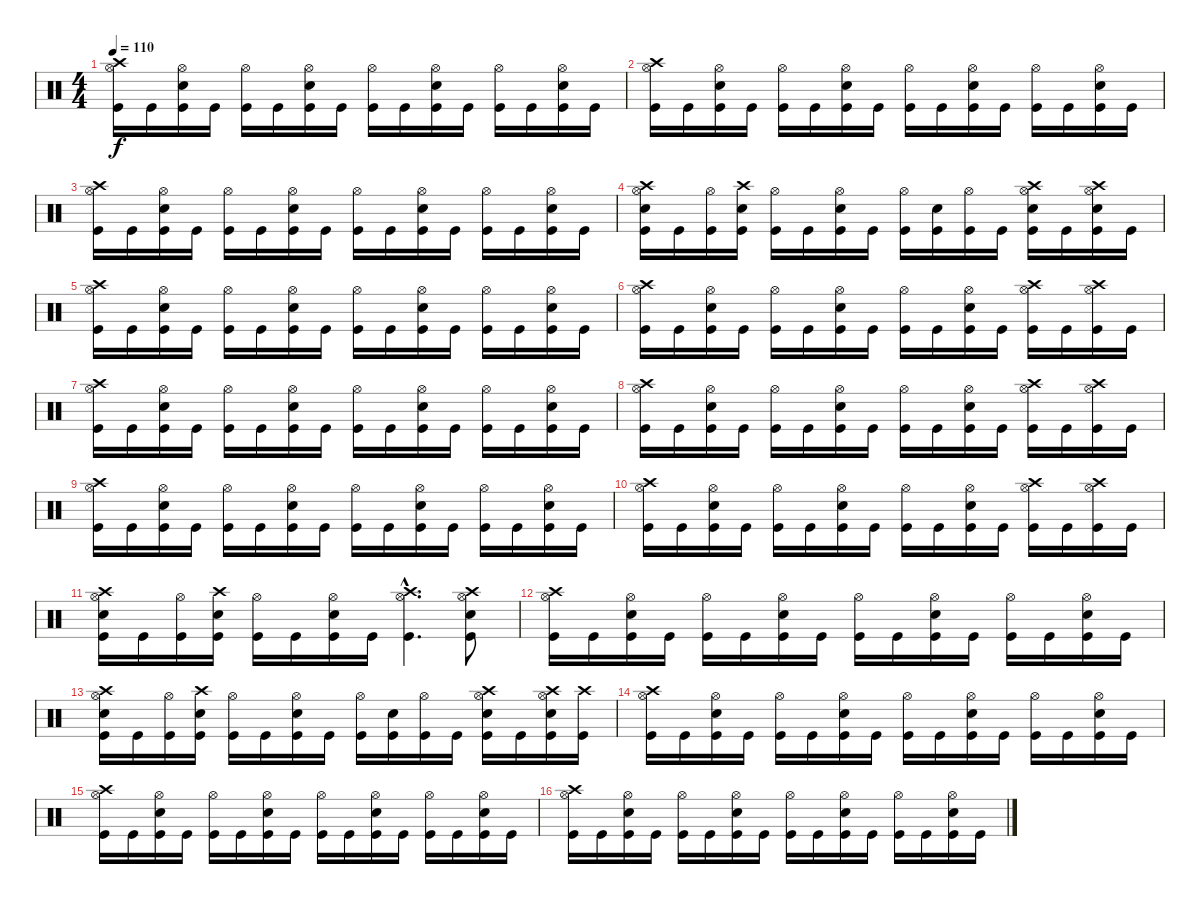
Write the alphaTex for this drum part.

\track "" {instrument percussion}
\staff {score}
\articulation defaults
\ts (4 4)
\tempo 110
\clef neutral
\ks c
("Crash high (hit)" "Kick (hit)" "Hi-Hat (open)").16{dy f} "Kick (hit)".16 ("Kick (hit)" "Electric Snare (hit)" "Hi-Hat (open)").16 "Kick (hit)".16 ("Kick (hit)" "Hi-Hat (open)").16 "Kick (hit)".16 ("Kick (hit)" "Electric Snare (hit)" "Hi-Hat (open)").16 "Kick (hit)".16 ("Hi-Hat (open)" "Kick (hit)").16 "Kick (hit)".16 ("Kick (hit)" "Hi-Hat (open)" "Electric Snare (hit)").16 "Kick (hit)".16 ("Hi-Hat (open)" "Kick (hit)").16 "Kick (hit)".16 ("Kick (hit)" "Hi-Hat (open)" "Electric Snare (hit)").16 "Kick (hit)".16 |
("Crash high (hit)" "Kick (hit)" "Hi-Hat (open)").16 "Kick (hit)".16 ("Kick (hit)" "Electric Snare (hit)" "Hi-Hat (open)").16 "Kick (hit)".16 ("Kick (hit)" "Hi-Hat (open)").16 "Kick (hit)".16 ("Kick (hit)" "Electric Snare (hit)" "Hi-Hat (open)").16 "Kick (hit)".16 ("Hi-Hat (open)" "Kick (hit)").16 "Kick (hit)".16 ("Kick (hit)" "Hi-Hat (open)" "Electric Snare (hit)").16 "Kick (hit)".16 ("Hi-Hat (open)" "Kick (hit)").16 "Kick (hit)".16 ("Kick (hit)" "Hi-Hat (open)" "Electric Snare (hit)").16 "Kick (hit)".16 |
("Crash high (hit)" "Kick (hit)" "Hi-Hat (open)").16 "Kick (hit)".16 ("Kick (hit)" "Electric Snare (hit)" "Hi-Hat (open)").16 "Kick (hit)".16 ("Kick (hit)" "Hi-Hat (open)").16 "Kick (hit)".16 ("Kick (hit)" "Electric Snare (hit)" "Hi-Hat (open)").16 "Kick (hit)".16 ("Hi-Hat (open)" "Kick (hit)").16 "Kick (hit)".16 ("Kick (hit)" "Hi-Hat (open)" "Electric Snare (hit)").16 "Kick (hit)".16 ("Hi-Hat (open)" "Kick (hit)").16 "Kick (hit)".16 ("Kick (hit)" "Hi-Hat (open)" "Electric Snare (hit)").16 "Kick (hit)".16 |
("Crash high (hit)" "Electric Snare (hit)" "Kick (hit)" "Hi-Hat (open)").16 "Kick (hit)".16 ("Kick (hit)" "Hi-Hat (open)").16 ("Crash high (hit)" "Electric Snare (hit)" "Kick (hit)").16 ("Kick (hit)" "Hi-Hat (open)").16 "Kick (hit)".16 ("Electric Snare (hit)" "Kick (hit)" "Hi-Hat (open)").16 "Kick (hit)".16 ("Hi-Hat (open)" "Kick (hit)").16 ("Electric Snare (hit)" "Kick (hit)").16 ("Kick (hit)" "Hi-Hat (open)").16 "Kick (hit)".16 ("Crash high (hit)" "Electric Snare (hit)" "Hi-Hat (open)" "Kick (hit)").16 "Kick (hit)".16 ("Crash high (hit)" "Electric Snare (hit)" "Kick (hit)" "Hi-Hat (open)").16 "Kick (hit)".16 |
("Crash high (hit)" "Kick (hit)" "Hi-Hat (open)").16 "Kick (hit)".16 ("Kick (hit)" "Electric Snare (hit)" "Hi-Hat (open)").16 "Kick (hit)".16 ("Kick (hit)" "Hi-Hat (open)").16 "Kick (hit)".16 ("Kick (hit)" "Electric Snare (hit)" "Hi-Hat (open)").16 "Kick (hit)".16 ("Hi-Hat (open)" "Kick (hit)").16 "Kick (hit)".16 ("Kick (hit)" "Hi-Hat (open)" "Electric Snare (hit)").16 "Kick (hit)".16 ("Hi-Hat (open)" "Kick (hit)").16 "Kick (hit)".16 ("Kick (hit)" "Hi-Hat (open)" "Electric Snare (hit)").16 "Kick (hit)".16 |
("Crash high (hit)" "Kick (hit)" "Hi-Hat (open)").16 "Kick (hit)".16 ("Kick (hit)" "Electric Snare (hit)" "Hi-Hat (open)").16 "Kick (hit)".16 ("Kick (hit)" "Hi-Hat (open)").16 "Kick (hit)".16 ("Kick (hit)" "Electric Snare (hit)" "Hi-Hat (open)").16 "Kick (hit)".16 ("Hi-Hat (open)" "Kick (hit)").16 "Kick (hit)".16 ("Kick (hit)" "Hi-Hat (open)" "Electric Snare (hit)").16 "Kick (hit)".16 ("Hi-Hat (open)" "Kick (hit)" "Crash high (hit)").16 "Kick (hit)".16 ("Kick (hit)" "Hi-Hat (open)" "Crash high (hit)").16 "Kick (hit)".16 |
("Crash high (hit)" "Kick (hit)" "Hi-Hat (open)").16 "Kick (hit)".16 ("Kick (hit)" "Electric Snare (hit)" "Hi-Hat (open)").16 "Kick (hit)".16 ("Kick (hit)" "Hi-Hat (open)").16 "Kick (hit)".16 ("Kick (hit)" "Electric Snare (hit)" "Hi-Hat (open)").16 "Kick (hit)".16 ("Hi-Hat (open)" "Kick (hit)").16 "Kick (hit)".16 ("Kick (hit)" "Hi-Hat (open)" "Electric Snare (hit)").16 "Kick (hit)".16 ("Hi-Hat (open)" "Kick (hit)").16 "Kick (hit)".16 ("Kick (hit)" "Hi-Hat (open)" "Electric Snare (hit)").16 "Kick (hit)".16 |
("Crash high (hit)" "Kick (hit)" "Hi-Hat (open)").16 "Kick (hit)".16 ("Kick (hit)" "Electric Snare (hit)" "Hi-Hat (open)").16 "Kick (hit)".16 ("Kick (hit)" "Hi-Hat (open)").16 "Kick (hit)".16 ("Kick (hit)" "Electric Snare (hit)" "Hi-Hat (open)").16 "Kick (hit)".16 ("Hi-Hat (open)" "Kick (hit)").16 "Kick (hit)".16 ("Kick (hit)" "Hi-Hat (open)" "Electric Snare (hit)").16 "Kick (hit)".16 ("Hi-Hat (open)" "Kick (hit)" "Crash high (hit)").16 "Kick (hit)".16 ("Kick (hit)" "Hi-Hat (open)" "Crash high (hit)").16 "Kick (hit)".16 |
("Crash high (hit)" "Kick (hit)" "Hi-Hat (open)").16 "Kick (hit)".16 ("Kick (hit)" "Electric Snare (hit)" "Hi-Hat (open)").16 "Kick (hit)".16 ("Kick (hit)" "Hi-Hat (open)").16 "Kick (hit)".16 ("Kick (hit)" "Electric Snare (hit)" "Hi-Hat (open)").16 "Kick (hit)".16 ("Hi-Hat (open)" "Kick (hit)").16 "Kick (hit)".16 ("Kick (hit)" "Hi-Hat (open)" "Electric Snare (hit)").16 "Kick (hit)".16 ("Hi-Hat (open)" "Kick (hit)").16 "Kick (hit)".16 ("Kick (hit)" "Hi-Hat (open)" "Electric Snare (hit)").16 "Kick (hit)".16 |
("Crash high (hit)" "Kick (hit)" "Hi-Hat (open)").16 "Kick (hit)".16 ("Kick (hit)" "Electric Snare (hit)" "Hi-Hat (open)").16 "Kick (hit)".16 ("Kick (hit)" "Hi-Hat (open)").16 "Kick (hit)".16 ("Kick (hit)" "Electric Snare (hit)" "Hi-Hat (open)").16 "Kick (hit)".16 ("Hi-Hat (open)" "Kick (hit)").16 "Kick (hit)".16 ("Kick (hit)" "Hi-Hat (open)" "Electric Snare (hit)").16 "Kick (hit)".16 ("Hi-Hat (open)" "Kick (hit)" "Crash high (hit)").16 "Kick (hit)".16 ("Kick (hit)" "Hi-Hat (open)" "Crash high (hit)").16 "Kick (hit)".16 |
("Crash high (hit)" "Electric Snare (hit)" "Kick (hit)" "Hi-Hat (open)").16 "Kick (hit)".16 ("Kick (hit)" "Hi-Hat (open)").16 ("Crash high (hit)" "Electric Snare (hit)" "Kick (hit)").16 ("Kick (hit)" "Hi-Hat (open)").16 "Kick (hit)".16 ("Electric Snare (hit)" "Kick (hit)" "Hi-Hat (open)").16 "Kick (hit)".16 ("Hi-Hat (open)" "Kick (hit)"{hac} "Crash high (hit)"{hac}).4{d} ("Crash high (hit)" "Electric Snare (hit)" "Kick (hit)" "Hi-Hat (open)").8 |
("Crash high (hit)" "Kick (hit)" "Hi-Hat (open)").16 "Kick (hit)".16 ("Kick (hit)" "Electric Snare (hit)" "Hi-Hat (open)").16 "Kick (hit)".16 ("Kick (hit)" "Hi-Hat (open)").16 "Kick (hit)".16 ("Kick (hit)" "Electric Snare (hit)" "Hi-Hat (open)").16 "Kick (hit)".16 ("Hi-Hat (open)" "Kick (hit)").16 "Kick (hit)".16 ("Kick (hit)" "Hi-Hat (open)" "Electric Snare (hit)").16 "Kick (hit)".16 ("Hi-Hat (open)" "Kick (hit)").16 "Kick (hit)".16 ("Kick (hit)" "Hi-Hat (open)" "Electric Snare (hit)").16 "Kick (hit)".16 |
("Crash high (hit)" "Electric Snare (hit)" "Kick (hit)" "Hi-Hat (open)").16 "Kick (hit)".16 ("Kick (hit)" "Hi-Hat (open)").16 ("Crash high (hit)" "Electric Snare (hit)" "Kick (hit)").16 ("Kick (hit)" "Hi-Hat (open)").16 "Kick (hit)".16 ("Electric Snare (hit)" "Kick (hit)" "Hi-Hat (open)").16 "Kick (hit)".16 ("Hi-Hat (open)" "Kick (hit)").16 ("Electric Snare (hit)" "Kick (hit)").16 ("Kick (hit)" "Hi-Hat (open)").16 "Kick (hit)".16 ("Crash high (hit)" "Electric Snare (hit)" "Hi-Hat (open)" "Kick (hit)").16 "Kick (hit)".16 ("Crash high (hit)" "Electric Snare (hit)" "Kick (hit)" "Hi-Hat (open)").16 ("Kick (hit)" "Crash high (hit)").16 |
("Crash high (hit)" "Kick (hit)" "Hi-Hat (open)").16 "Kick (hit)".16 ("Kick (hit)" "Electric Snare (hit)" "Hi-Hat (open)").16 "Kick (hit)".16 ("Kick (hit)" "Hi-Hat (open)").16 "Kick (hit)".16 ("Kick (hit)" "Electric Snare (hit)" "Hi-Hat (open)").16 "Kick (hit)".16 ("Hi-Hat (open)" "Kick (hit)").16 "Kick (hit)".16 ("Kick (hit)" "Hi-Hat (open)" "Electric Snare (hit)").16 "Kick (hit)".16 ("Hi-Hat (open)" "Kick (hit)").16 "Kick (hit)".16 ("Kick (hit)" "Hi-Hat (open)" "Electric Snare (hit)").16 "Kick (hit)".16 |
("Crash high (hit)" "Kick (hit)" "Hi-Hat (open)").16 "Kick (hit)".16 ("Kick (hit)" "Electric Snare (hit)" "Hi-Hat (open)").16 "Kick (hit)".16 ("Kick (hit)" "Hi-Hat (open)").16 "Kick (hit)".16 ("Kick (hit)" "Electric Snare (hit)" "Hi-Hat (open)").16 "Kick (hit)".16 ("Hi-Hat (open)" "Kick (hit)").16 "Kick (hit)".16 ("Kick (hit)" "Hi-Hat (open)" "Electric Snare (hit)").16 "Kick (hit)".16 ("Hi-Hat (open)" "Kick (hit)").16 "Kick (hit)".16 ("Kick (hit)" "Hi-Hat (open)" "Electric Snare (hit)").16 "Kick (hit)".16 |
("Crash high (hit)" "Kick (hit)" "Hi-Hat (open)").16 "Kick (hit)".16 ("Kick (hit)" "Electric Snare (hit)" "Hi-Hat (open)").16 "Kick (hit)".16 ("Kick (hit)" "Hi-Hat (open)").16 "Kick (hit)".16 ("Kick (hit)" "Electric Snare (hit)" "Hi-Hat (open)").16 "Kick (hit)".16 ("Hi-Hat (open)" "Kick (hit)").16 "Kick (hit)".16 ("Kick (hit)" "Hi-Hat (open)" "Electric Snare (hit)").16 "Kick (hit)".16 ("Hi-Hat (open)" "Kick (hit)").16 "Kick (hit)".16 ("Kick (hit)" "Hi-Hat (open)" "Electric Snare (hit)").16 "Kick (hit)".16
